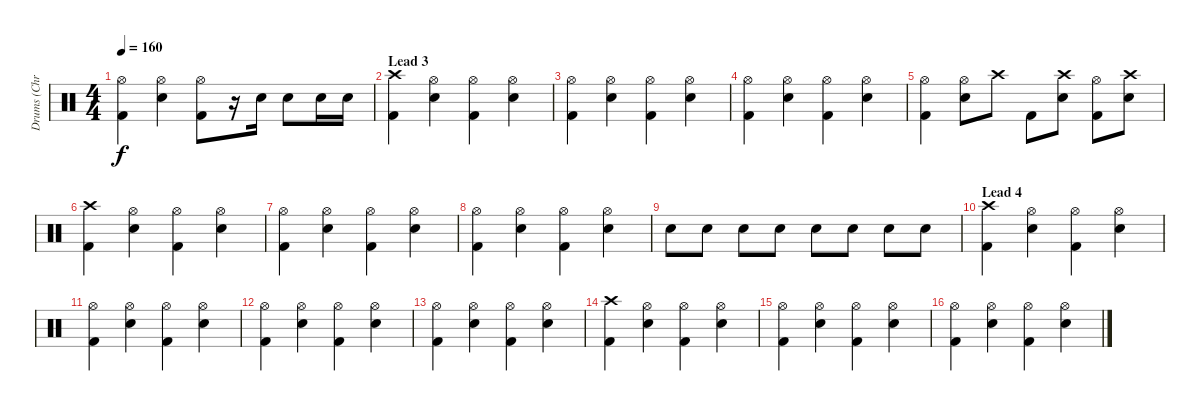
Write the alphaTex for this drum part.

\track ("Drums (Chris Efthimiadis)" "Drums (Chr") {instrument percussion}
\staff {score}
\articulation defaults
\ts (4 4)
\tempo 160
\clef neutral
\ks c
("Hi-Hat (open)" "Kick (hit) 2").4{dy f} ("Hi-Hat (open)" "Snare (hit) 2").4 ("Hi-Hat (open)" "Kick (hit) 2").8 r.16 "Snare (hit) 2".16 "Snare (hit) 2".8 "Snare (hit) 2".16 "Snare (hit) 2".16 |
\section ("" "Lead 3")
("Crash high (hit)" "Kick (hit) 2").4 ("Hi-Hat (open)" "Snare (hit) 2").4 ("Hi-Hat (open)" "Kick (hit) 2").4 ("Hi-Hat (open)" "Snare (hit) 2").4 |
("Hi-Hat (open)" "Kick (hit) 2").4 ("Hi-Hat (open)" "Snare (hit) 2").4 ("Hi-Hat (open)" "Kick (hit) 2").4 ("Hi-Hat (open)" "Snare (hit) 2").4 |
("Hi-Hat (open)" "Kick (hit) 2").4 ("Hi-Hat (open)" "Snare (hit) 2").4 ("Hi-Hat (open)" "Kick (hit) 2").4 ("Hi-Hat (open)" "Snare (hit) 2").4 |
("Hi-Hat (open)" "Kick (hit) 2").4 ("Hi-Hat (open)" "Snare (hit) 2").8 "Crash high (hit)".8 "Kick (hit) 2".8 ("Crash high (hit)" "Snare (hit) 2").8 ("Hi-Hat (open)" "Kick (hit) 2").8 ("Crash high (hit)" "Snare (hit) 2").8 |
("Crash high (hit)" "Kick (hit) 2").4 ("Hi-Hat (open)" "Snare (hit) 2").4 ("Hi-Hat (open)" "Kick (hit) 2").4 ("Hi-Hat (open)" "Snare (hit) 2").4 |
("Hi-Hat (open)" "Kick (hit) 2").4 ("Hi-Hat (open)" "Snare (hit) 2").4 ("Hi-Hat (open)" "Kick (hit) 2").4 ("Hi-Hat (open)" "Snare (hit) 2").4 |
("Hi-Hat (open)" "Kick (hit) 2").4 ("Hi-Hat (open)" "Snare (hit) 2").4 ("Hi-Hat (open)" "Kick (hit) 2").4 ("Hi-Hat (open)" "Snare (hit) 2").4 |
"Snare (hit) 2".8 "Snare (hit) 2".8 "Snare (hit) 2".8 "Snare (hit) 2".8 "Snare (hit) 2".8 "Snare (hit) 2".8 "Snare (hit) 2".8 "Snare (hit) 2".8 |
\section ("" "Lead 4")
("Crash high (hit)" "Kick (hit) 2").4 ("Hi-Hat (open)" "Snare (hit) 2").4 ("Hi-Hat (open)" "Kick (hit) 2").4 ("Hi-Hat (open)" "Snare (hit) 2").4 |
("Hi-Hat (open)" "Kick (hit) 2").4 ("Hi-Hat (open)" "Snare (hit) 2").4 ("Hi-Hat (open)" "Kick (hit) 2").4 ("Hi-Hat (open)" "Snare (hit) 2").4 |
("Hi-Hat (open)" "Kick (hit) 2").4 ("Hi-Hat (open)" "Snare (hit) 2").4 ("Hi-Hat (open)" "Kick (hit) 2").4 ("Hi-Hat (open)" "Snare (hit) 2").4 |
("Hi-Hat (open)" "Kick (hit) 2").4 ("Hi-Hat (open)" "Snare (hit) 2").4 ("Hi-Hat (open)" "Kick (hit) 2").4 ("Hi-Hat (open)" "Snare (hit) 2").4 |
("Crash high (hit)" "Kick (hit) 2").4 ("Hi-Hat (open)" "Snare (hit) 2").4 ("Hi-Hat (open)" "Kick (hit) 2").4 ("Hi-Hat (open)" "Snare (hit) 2").4 |
("Hi-Hat (open)" "Kick (hit) 2").4 ("Hi-Hat (open)" "Snare (hit) 2").4 ("Hi-Hat (open)" "Kick (hit) 2").4 ("Hi-Hat (open)" "Snare (hit) 2").4 |
("Hi-Hat (open)" "Kick (hit) 2").4 ("Hi-Hat (open)" "Snare (hit) 2").4 ("Hi-Hat (open)" "Kick (hit) 2").4 ("Hi-Hat (open)" "Snare (hit) 2").4
